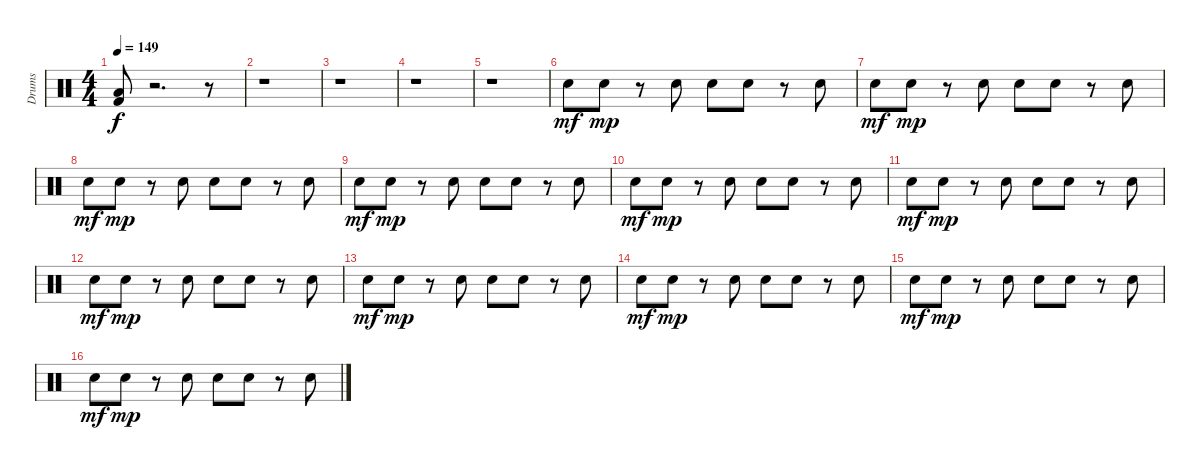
\track ("Drums" "Drums") {instrument percussion}
\staff {score}
\articulation defaults
\ts (4 4)
\tempo 149
\clef neutral
\ks c
("Kick (hit) 2" "Low Floor Tom (hit)").8{dy f} r.2{d} r.8 |
r.1 |
r.1 |
r.1 |
r.1 |
"Electric Snare (hit)".8{dy mf} "Electric Snare (hit)".8{dy mp} r.8 "Electric Snare (hit)".8 "Electric Snare (hit)".8 "Electric Snare (hit)".8 r.8 "Electric Snare (hit)".8 |
"Electric Snare (hit)".8{dy mf} "Electric Snare (hit)".8{dy mp} r.8 "Electric Snare (hit)".8 "Electric Snare (hit)".8 "Electric Snare (hit)".8 r.8 "Electric Snare (hit)".8 |
"Electric Snare (hit)".8{dy mf} "Electric Snare (hit)".8{dy mp} r.8 "Electric Snare (hit)".8 "Electric Snare (hit)".8 "Electric Snare (hit)".8 r.8 "Electric Snare (hit)".8 |
"Electric Snare (hit)".8{dy mf} "Electric Snare (hit)".8{dy mp} r.8 "Electric Snare (hit)".8 "Electric Snare (hit)".8 "Electric Snare (hit)".8 r.8 "Electric Snare (hit)".8 |
"Electric Snare (hit)".8{dy mf} "Electric Snare (hit)".8{dy mp} r.8 "Electric Snare (hit)".8 "Electric Snare (hit)".8 "Electric Snare (hit)".8 r.8 "Electric Snare (hit)".8 |
"Electric Snare (hit)".8{dy mf} "Electric Snare (hit)".8{dy mp} r.8 "Electric Snare (hit)".8 "Electric Snare (hit)".8 "Electric Snare (hit)".8 r.8 "Electric Snare (hit)".8 |
"Electric Snare (hit)".8{dy mf} "Electric Snare (hit)".8{dy mp} r.8 "Electric Snare (hit)".8 "Electric Snare (hit)".8 "Electric Snare (hit)".8 r.8 "Electric Snare (hit)".8 |
"Electric Snare (hit)".8{dy mf} "Electric Snare (hit)".8{dy mp} r.8 "Electric Snare (hit)".8 "Electric Snare (hit)".8 "Electric Snare (hit)".8 r.8 "Electric Snare (hit)".8 |
"Electric Snare (hit)".8{dy mf} "Electric Snare (hit)".8{dy mp} r.8 "Electric Snare (hit)".8 "Electric Snare (hit)".8 "Electric Snare (hit)".8 r.8 "Electric Snare (hit)".8 |
"Electric Snare (hit)".8{dy mf} "Electric Snare (hit)".8{dy mp} r.8 "Electric Snare (hit)".8 "Electric Snare (hit)".8 "Electric Snare (hit)".8 r.8 "Electric Snare (hit)".8 |
"Electric Snare (hit)".8{dy mf} "Electric Snare (hit)".8{dy mp} r.8 "Electric Snare (hit)".8 "Electric Snare (hit)".8 "Electric Snare (hit)".8 r.8 "Electric Snare (hit)".8
